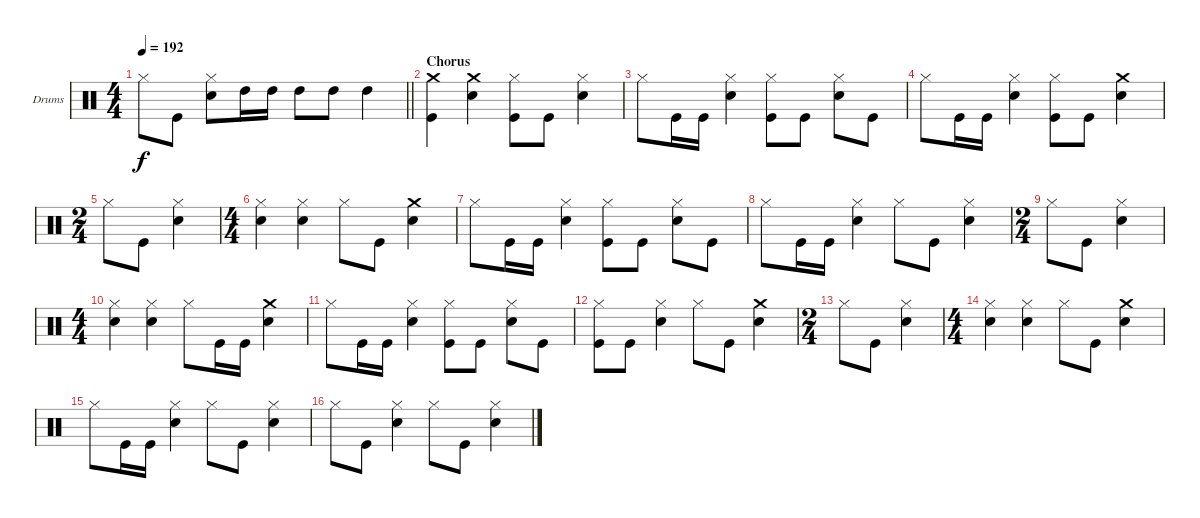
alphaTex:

\bracketExtendMode groupsimilarinstruments
\firstSystemTrackNameOrientation horizontal
\otherSystemsTrackNameOrientation horizontal
\track ("Lars Ulrich" "Drums") {instrument percussion}
\staff {score}
\articulation defaults
\ts (4 4)
\tempo 192
\clef neutral
\barLineRight lightlight
\ks c "Hi-Hat (closed)".8{dy f} "Kick (hit)".8
("Hi-Hat (closed)" "Snare (hit) 2").8 "High Tom (hit)".16 "High Tom (hit)".16 "High Tom (hit)".8 "High Tom (hit)".8 "High Tom (hit)".4 |
\section ("" "Chorus")
("Crash medium (hit)" "Kick (hit)").4 ("Crash medium (hit)" "Snare (hit) 2").4 ("Hi-Hat (closed)" "Kick (hit)").8 "Kick (hit)".8 ("Hi-Hat (closed)" "Snare (hit) 2").4 |
"Hi-Hat (closed)".8 "Kick (hit)".16 "Kick (hit)".16 ("Hi-Hat (closed)" "Snare (hit) 2").4 ("Hi-Hat (closed)" "Kick (hit)").8 "Kick (hit)".8 ("Hi-Hat (closed)" "Snare (hit) 2").8 "Kick (hit)".8 |
"Hi-Hat (closed)".8 "Kick (hit)".16 "Kick (hit)".16 ("Hi-Hat (closed)" "Snare (hit) 2").4 ("Hi-Hat (closed)" "Kick (hit)").8 "Kick (hit)".8 ("Crash medium (hit)" "Snare (hit) 2").4 |
\ts (2 4)
\beaming (8 2 2)
"Hi-Hat (closed)".8 "Kick (hit)".8 ("Hi-Hat (closed)" "Snare (hit) 2").4 |
\ts (4 4)
\beaming (8 2 2 2 2)
("Hi-Hat (closed)" "Snare (hit) 2").4 ("Hi-Hat (closed)" "Snare (hit) 2").4 "Hi-Hat (closed)".8 "Kick (hit)".8 ("Crash medium (hit)" "Snare (hit) 2").4 |
"Hi-Hat (closed)".8 "Kick (hit)".16 "Kick (hit)".16 ("Hi-Hat (closed)" "Snare (hit) 2").4 ("Hi-Hat (closed)" "Kick (hit)").8 "Kick (hit)".8 ("Hi-Hat (closed)" "Snare (hit) 2").8 "Kick (hit)".8 |
"Hi-Hat (closed)".8 "Kick (hit)".16 "Kick (hit)".16 ("Hi-Hat (closed)" "Snare (hit) 2").4 "Hi-Hat (closed)".8 "Kick (hit)".8 ("Hi-Hat (closed)" "Snare (hit) 2").4 |
\ts (2 4)
\beaming (8 2 2)
"Hi-Hat (closed)".8 "Kick (hit)".8 ("Hi-Hat (closed)" "Snare (hit) 2").4 |
\ts (4 4)
\beaming (8 2 2 2 2)
("Hi-Hat (closed)" "Snare (hit) 2").4 ("Hi-Hat (closed)" "Snare (hit) 2").4 "Hi-Hat (closed)".8 "Kick (hit)".16 "Kick (hit)".16 ("Crash medium (hit)" "Snare (hit) 2").4 |
"Hi-Hat (closed)".8 "Kick (hit)".16 "Kick (hit)".16 ("Hi-Hat (closed)" "Snare (hit) 2").4 ("Hi-Hat (closed)" "Kick (hit)").8 "Kick (hit)".8 ("Hi-Hat (closed)" "Snare (hit) 2").8 "Kick (hit)".8 |
("Hi-Hat (closed)" "Kick (hit)").8 "Kick (hit)".8 ("Hi-Hat (closed)" "Snare (hit) 2").4 "Hi-Hat (closed)".8 "Kick (hit)".8 ("Crash medium (hit)" "Snare (hit) 2").4 |
\ts (2 4)
\beaming (8 2 2)
"Hi-Hat (closed)".8 "Kick (hit)".8 ("Hi-Hat (closed)" "Snare (hit) 2").4 |
\ts (4 4)
\beaming (8 2 2 2 2)
("Hi-Hat (closed)" "Snare (hit) 2").4 ("Hi-Hat (closed)" "Snare (hit) 2").4 "Hi-Hat (closed)".8 "Kick (hit)".8 ("Crash medium (hit)" "Snare (hit) 2").4 |
"Hi-Hat (closed)".8 "Kick (hit)".16 "Kick (hit)".16 ("Hi-Hat (closed)" "Snare (hit) 2").4 "Hi-Hat (closed)".8 "Kick (hit)".8 ("Hi-Hat (closed)" "Snare (hit) 2").4 |
"Hi-Hat (closed)".8 "Kick (hit)".8 ("Hi-Hat (closed)" "Snare (hit) 2").4 "Hi-Hat (closed)".8 "Kick (hit)".8 ("Hi-Hat (closed)" "Snare (hit) 2").4
